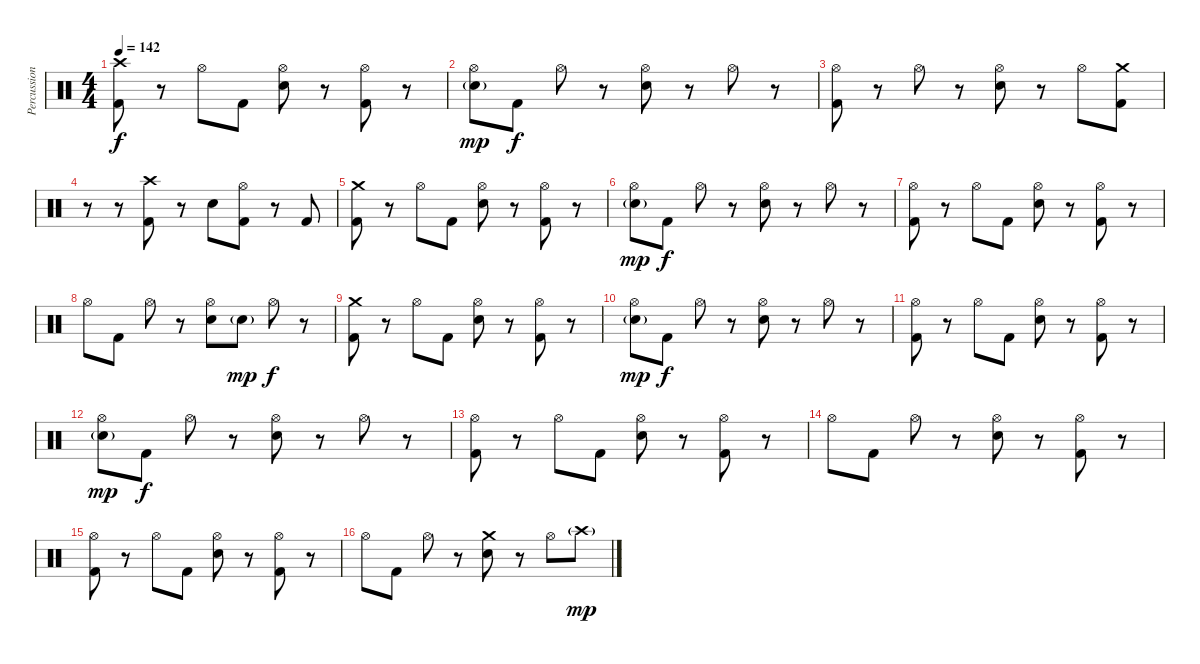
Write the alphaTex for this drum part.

\track ("Percussion" "Percussion") {instrument percussion}
\staff {score}
\articulation defaults
\ts (4 4)
\tempo 142
\clef neutral
\ks c
("Crash high (hit)" "Kick (hit) 2").8{dy f} r.8 "Hi-Hat (open)".8 "Kick (hit) 2".8 ("Hi-Hat (open)" "Electric Snare (hit)").8 r.8 ("Hi-Hat (open)" "Kick (hit) 2").8 r.8 |
("Hi-Hat (open)" "Electric Snare (hit)"{g}).8{dy mp} "Kick (hit) 2".8{dy f} "Hi-Hat (open)".8 r.8 ("Hi-Hat (open)" "Electric Snare (hit)").8 r.8 "Hi-Hat (open)".8 r.8 |
("Hi-Hat (open)" "Kick (hit) 2").8 r.8 "Hi-Hat (open)".8 r.8 ("Hi-Hat (open)" "Electric Snare (hit)").8 r.8 "Hi-Hat (open)".8 ("Crash medium (hit)" "Kick (hit) 2").8 |
r.8 r.8 ("Crash high (hit)" "Kick (hit) 2").8 r.8 "Electric Snare (hit)".8 ("Hi-Hat (open)" "Kick (hit) 2").8 r.8 "Kick (hit) 2".8 |
("Crash medium (hit)" "Kick (hit) 2").8 r.8 "Hi-Hat (open)".8 "Kick (hit) 2".8 ("Hi-Hat (open)" "Electric Snare (hit)").8 r.8 ("Hi-Hat (open)" "Kick (hit) 2").8 r.8 |
("Hi-Hat (open)" "Electric Snare (hit)"{g}).8{dy mp} "Kick (hit) 2".8{dy f} "Hi-Hat (open)".8 r.8 ("Hi-Hat (open)" "Electric Snare (hit)").8 r.8 "Hi-Hat (open)".8 r.8 |
("Hi-Hat (open)" "Kick (hit) 2").8 r.8 "Hi-Hat (open)".8 "Kick (hit) 2".8 ("Hi-Hat (open)" "Electric Snare (hit)").8 r.8 ("Hi-Hat (open)" "Kick (hit) 2").8 r.8 |
"Hi-Hat (open)".8 "Kick (hit) 2".8 "Hi-Hat (open)".8 r.8 ("Hi-Hat (open)" "Electric Snare (hit)").8 "Electric Snare (hit)"{g}.8{dy mp} "Hi-Hat (open)".8{dy f} r.8 |
("Crash medium (hit)" "Kick (hit) 2").8 r.8 "Hi-Hat (open)".8 "Kick (hit) 2".8 ("Hi-Hat (open)" "Electric Snare (hit)").8 r.8 ("Hi-Hat (open)" "Kick (hit) 2").8 r.8 |
("Hi-Hat (open)" "Electric Snare (hit)"{g}).8{dy mp} "Kick (hit) 2".8{dy f} "Hi-Hat (open)".8 r.8 ("Hi-Hat (open)" "Electric Snare (hit)").8 r.8 "Hi-Hat (open)".8 r.8 |
("Hi-Hat (open)" "Kick (hit) 2").8 r.8 "Hi-Hat (open)".8 "Kick (hit) 2".8 ("Hi-Hat (open)" "Electric Snare (hit)").8 r.8 ("Hi-Hat (open)" "Kick (hit) 2").8 r.8 |
("Hi-Hat (open)" "Electric Snare (hit)"{g}).8{dy mp} "Kick (hit) 2".8{dy f} "Hi-Hat (open)".8 r.8 ("Hi-Hat (open)" "Electric Snare (hit)").8 r.8 "Hi-Hat (open)".8 r.8 |
("Hi-Hat (open)" "Kick (hit) 2").8 r.8 "Hi-Hat (open)".8 "Kick (hit) 2".8 ("Hi-Hat (open)" "Electric Snare (hit)").8 r.8 ("Hi-Hat (open)" "Kick (hit) 2").8 r.8 |
"Hi-Hat (open)".8 "Kick (hit) 2".8 "Hi-Hat (open)".8 r.8 ("Hi-Hat (open)" "Electric Snare (hit)").8 r.8 ("Hi-Hat (open)" "Kick (hit) 2").8 r.8 |
("Hi-Hat (open)" "Kick (hit) 2").8 r.8 "Hi-Hat (open)".8 "Kick (hit) 2".8 ("Hi-Hat (open)" "Electric Snare (hit)").8 r.8 ("Hi-Hat (open)" "Kick (hit) 2").8 r.8 |
"Hi-Hat (open)".8 "Kick (hit) 2".8 "Hi-Hat (open)".8 r.8 ("Crash medium (hit)" "Electric Snare (hit)").8 r.8 "Hi-Hat (open)".8 "Crash high (hit)"{g}.8{dy mp}
